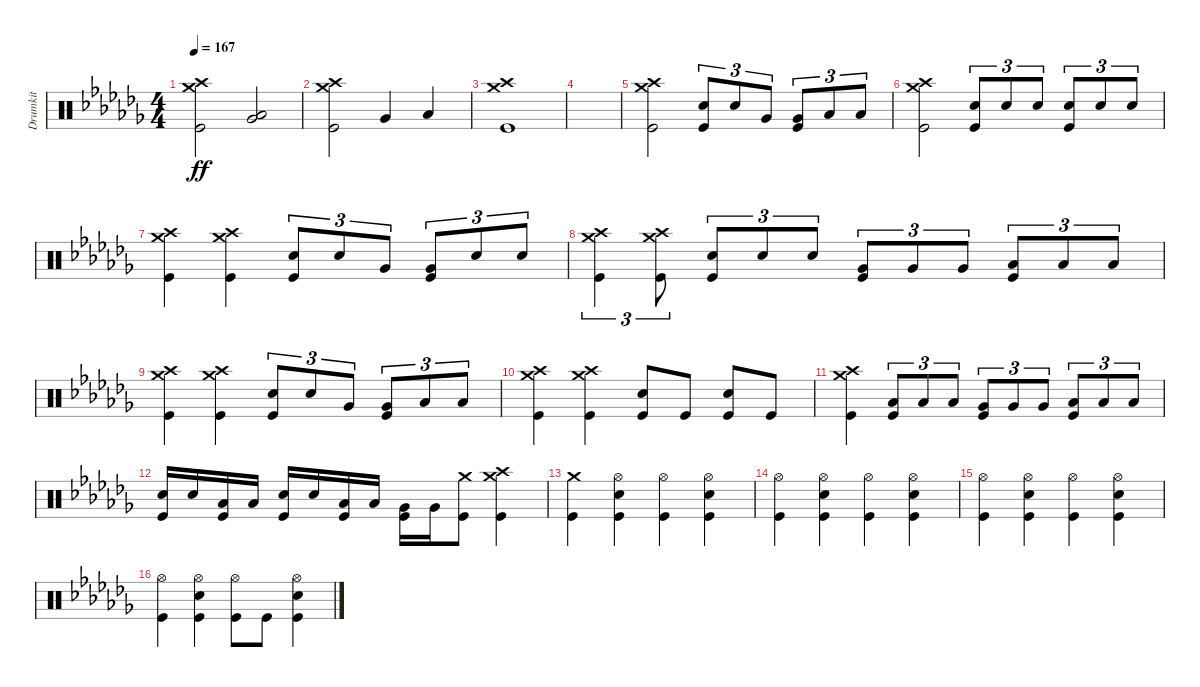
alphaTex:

\track ("Drumkit" "Drumkit") {instrument percussion}
\staff {score}
\articulation defaults
\ts (4 4)
\tempo 167
\clef neutral
\ks abminor
("Kick (hit)" "Crash medium (hit)" "Crash high (hit)").2{dy ff} ("Very Low Tom (hit)" "Low Floor Tom (hit)").2 |
("Kick (hit)" "Crash medium (hit)" "Crash high (hit)").2 "Very Low Tom (hit)".4 "Low Floor Tom (hit)".4 |
("Kick (hit)" "Crash medium (hit)" "Crash high (hit)").1 |
|
("Kick (hit)" "Crash medium (hit)" "Crash high (hit)").2 ("Snare (hit) 2" "Kick (hit)").8{tu (3 2)} "Snare (hit) 2".8{tu (3 2)} "Very Low Tom (hit)".8{tu (3 2)} ("Very Low Tom (hit)" "Kick (hit)").8{tu (3 2)} "Low Floor Tom (hit)".8{tu (3 2)} "Low Floor Tom (hit)".8{tu (3 2)} |
("Kick (hit)" "Crash medium (hit)" "Crash high (hit)").2 ("Snare (hit) 2" "Kick (hit)").8{tu (3 2)} "Snare (hit) 2".8{tu (3 2)} "Snare (hit) 2".8{tu (3 2)} ("Snare (hit) 2" "Kick (hit)").8{tu (3 2)} "Snare (hit) 2".8{tu (3 2)} "Snare (hit) 2".8{tu (3 2)} |
("Kick (hit)" "Crash medium (hit)" "Crash high (hit)").4 ("Kick (hit)" "Crash medium (hit)" "Crash high (hit)").4 ("Snare (hit) 2" "Kick (hit)").8{tu (3 2)} "Snare (hit) 2".8{tu (3 2)} "Very Low Tom (hit)".8{tu (3 2)} ("Very Low Tom (hit)" "Kick (hit)").8{tu (3 2)} "Snare (hit) 2".8{tu (3 2)} "Snare (hit) 2".8{tu (3 2)} |
("Kick (hit)" "Crash medium (hit)" "Crash high (hit)").4{tu (3 2)} ("Kick (hit)" "Crash medium (hit)" "Crash high (hit)").8{tu (3 2)} ("Snare (hit) 2" "Kick (hit)").8{tu (3 2)} "Snare (hit) 2".8{tu (3 2)} "Snare (hit) 2".8{tu (3 2)} ("Very Low Tom (hit)" "Kick (hit)").8{tu (3 2)} "Very Low Tom (hit)".8{tu (3 2)} "Very Low Tom (hit)".8{tu (3 2)} ("Low Floor Tom (hit)" "Kick (hit)").8{tu (3 2)} "Low Floor Tom (hit)".8{tu (3 2)} "Low Floor Tom (hit)".8{tu (3 2)} |
("Kick (hit)" "Crash medium (hit)" "Crash high (hit)").4 ("Kick (hit)" "Crash medium (hit)" "Crash high (hit)").4 ("Snare (hit) 2" "Kick (hit)").8{tu (3 2)} "Snare (hit) 2".8{tu (3 2)} "Very Low Tom (hit)".8{tu (3 2)} ("Very Low Tom (hit)" "Kick (hit)").8{tu (3 2)} "Low Floor Tom (hit)".8{tu (3 2)} "Low Floor Tom (hit)".8{tu (3 2)} |
("Kick (hit)" "Crash medium (hit)" "Crash high (hit)").4 ("Kick (hit)" "Crash medium (hit)" "Crash high (hit)").4 ("Snare (hit) 2" "Kick (hit)").8 "Kick (hit)".8 ("Snare (hit) 2" "Kick (hit)").8 "Kick (hit)".8 |
("Kick (hit)" "Crash medium (hit)" "Crash high (hit)").4 ("Low Tom (hit)" "Kick (hit)").8{tu (3 2)} "Low Tom (hit)".8{tu (3 2)} "Low Tom (hit)".8{tu (3 2)} ("Very Low Tom (hit)" "Kick (hit)").8{tu (3 2)} "Very Low Tom (hit)".8{tu (3 2)} "Very Low Tom (hit)".8{tu (3 2)} ("Low Floor Tom (hit)" "Kick (hit)").8{tu (3 2)} "Low Floor Tom (hit)".8{tu (3 2)} "Low Floor Tom (hit)".8{tu (3 2)} |
("Snare (hit) 2" "Kick (hit)").16 "Snare (hit) 2".16 ("Low Tom (hit)" "Kick (hit)").16 "Low Tom (hit)".16 ("Snare (hit) 2" "Kick (hit)").16 "Snare (hit) 2".16 ("Low Tom (hit)" "Kick (hit)").16 "Low Tom (hit)".16 ("Very Low Tom (hit)" "Kick (hit)").16 "Very Low Tom (hit)".16 ("Kick (hit)" "Crash medium (hit)").8 ("Kick (hit)" "Crash medium (hit)" "Crash high (hit)").4 |
("Kick (hit)" "Crash medium (hit)").4 ("Snare (hit) 2" "Hi-Hat (open)" "Kick (hit)").4 ("Kick (hit)" "Hi-Hat (open)").4 ("Snare (hit) 2" "Hi-Hat (open)" "Kick (hit)").4 |
("Kick (hit)" "Hi-Hat (open)").4 ("Snare (hit) 2" "Hi-Hat (open)" "Kick (hit)").4 ("Kick (hit)" "Hi-Hat (open)").4 ("Snare (hit) 2" "Hi-Hat (open)" "Kick (hit)").4 |
("Kick (hit)" "Hi-Hat (open)").4 ("Snare (hit) 2" "Hi-Hat (open)" "Kick (hit)").4 ("Kick (hit)" "Hi-Hat (open)").4 ("Snare (hit) 2" "Hi-Hat (open)" "Kick (hit)").4 |
("Kick (hit)" "Hi-Hat (open)").4 ("Snare (hit) 2" "Hi-Hat (open)" "Kick (hit)").4 ("Kick (hit)" "Hi-Hat (open)").8 "Kick (hit)".8 ("Snare (hit) 2" "Hi-Hat (open)" "Kick (hit)").4
